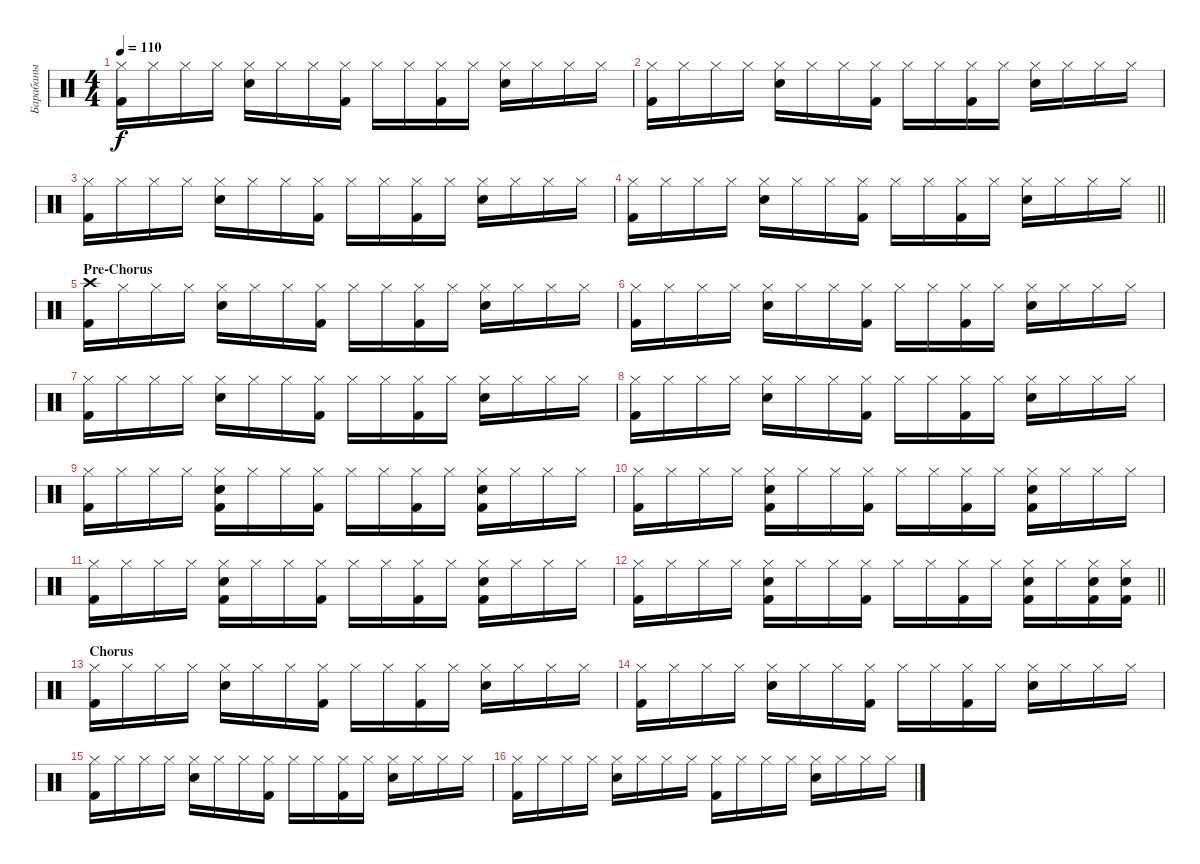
\track ("Барабаны" "Барабаны") {instrument percussion}
\staff {score}
\articulation defaults
\ts (4 4)
\tempo 110
\clef neutral
\ks c
("Hi-Hat (closed)" "Kick (hit) 2").16{dy f} "Hi-Hat (closed)".16 "Hi-Hat (closed)".16 "Hi-Hat (closed)".16 ("Hi-Hat (closed)" "Snare (hit) 2").16 "Hi-Hat (closed)".16 "Hi-Hat (closed)".16 ("Hi-Hat (closed)" "Kick (hit) 2").16 "Hi-Hat (closed)".16 "Hi-Hat (closed)".16 ("Hi-Hat (closed)" "Kick (hit) 2").16 "Hi-Hat (closed)".16 ("Hi-Hat (closed)" "Snare (hit) 2").16 "Hi-Hat (closed)".16 "Hi-Hat (closed)".16 "Hi-Hat (closed)".16 |
("Hi-Hat (closed)" "Kick (hit) 2").16 "Hi-Hat (closed)".16 "Hi-Hat (closed)".16 "Hi-Hat (closed)".16 ("Hi-Hat (closed)" "Snare (hit) 2").16 "Hi-Hat (closed)".16 "Hi-Hat (closed)".16 ("Hi-Hat (closed)" "Kick (hit) 2").16 "Hi-Hat (closed)".16 "Hi-Hat (closed)".16 ("Hi-Hat (closed)" "Kick (hit) 2").16 "Hi-Hat (closed)".16 ("Hi-Hat (closed)" "Snare (hit) 2").16 "Hi-Hat (closed)".16 "Hi-Hat (closed)".16 "Hi-Hat (closed)".16 |
("Hi-Hat (closed)" "Kick (hit) 2").16 "Hi-Hat (closed)".16 "Hi-Hat (closed)".16 "Hi-Hat (closed)".16 ("Hi-Hat (closed)" "Snare (hit) 2").16 "Hi-Hat (closed)".16 "Hi-Hat (closed)".16 ("Hi-Hat (closed)" "Kick (hit) 2").16 "Hi-Hat (closed)".16 "Hi-Hat (closed)".16 ("Hi-Hat (closed)" "Kick (hit) 2").16 "Hi-Hat (closed)".16 ("Hi-Hat (closed)" "Snare (hit) 2").16 "Hi-Hat (closed)".16 "Hi-Hat (closed)".16 "Hi-Hat (closed)".16 |
\barLineRight lightlight
("Hi-Hat (closed)" "Kick (hit) 2").16 "Hi-Hat (closed)".16 "Hi-Hat (closed)".16 "Hi-Hat (closed)".16 ("Hi-Hat (closed)" "Snare (hit) 2").16 "Hi-Hat (closed)".16 "Hi-Hat (closed)".16 ("Hi-Hat (closed)" "Kick (hit) 2").16 "Hi-Hat (closed)".16 "Hi-Hat (closed)".16 ("Hi-Hat (closed)" "Kick (hit) 2").16 "Hi-Hat (closed)".16 ("Hi-Hat (closed)" "Snare (hit) 2").16 "Hi-Hat (closed)".16 "Hi-Hat (closed)".16 "Hi-Hat (closed)".16 |
\section ("" "Pre-Chorus")
("Crash high (hit)" "Kick (hit) 2").16 "Hi-Hat (closed)".16 "Hi-Hat (closed)".16 "Hi-Hat (closed)".16 ("Hi-Hat (closed)" "Snare (hit) 2").16 "Hi-Hat (closed)".16 "Hi-Hat (closed)".16 ("Hi-Hat (closed)" "Kick (hit) 2").16 "Hi-Hat (closed)".16 "Hi-Hat (closed)".16 ("Hi-Hat (closed)" "Kick (hit) 2").16 "Hi-Hat (closed)".16 ("Hi-Hat (closed)" "Snare (hit) 2").16 "Hi-Hat (closed)".16 "Hi-Hat (closed)".16 "Hi-Hat (closed)".16 |
("Hi-Hat (closed)" "Kick (hit) 2").16 "Hi-Hat (closed)".16 "Hi-Hat (closed)".16 "Hi-Hat (closed)".16 ("Hi-Hat (closed)" "Snare (hit) 2").16 "Hi-Hat (closed)".16 "Hi-Hat (closed)".16 ("Hi-Hat (closed)" "Kick (hit) 2").16 "Hi-Hat (closed)".16 "Hi-Hat (closed)".16 ("Hi-Hat (closed)" "Kick (hit) 2").16 "Hi-Hat (closed)".16 ("Hi-Hat (closed)" "Snare (hit) 2").16 "Hi-Hat (closed)".16 "Hi-Hat (closed)".16 "Hi-Hat (closed)".16 |
("Hi-Hat (closed)" "Kick (hit) 2").16 "Hi-Hat (closed)".16 "Hi-Hat (closed)".16 "Hi-Hat (closed)".16 ("Hi-Hat (closed)" "Snare (hit) 2").16 "Hi-Hat (closed)".16 "Hi-Hat (closed)".16 ("Hi-Hat (closed)" "Kick (hit) 2").16 "Hi-Hat (closed)".16 "Hi-Hat (closed)".16 ("Hi-Hat (closed)" "Kick (hit) 2").16 "Hi-Hat (closed)".16 ("Hi-Hat (closed)" "Snare (hit) 2").16 "Hi-Hat (closed)".16 "Hi-Hat (closed)".16 "Hi-Hat (closed)".16 |
("Hi-Hat (closed)" "Kick (hit) 2").16 "Hi-Hat (closed)".16 "Hi-Hat (closed)".16 "Hi-Hat (closed)".16 ("Hi-Hat (closed)" "Snare (hit) 2").16 "Hi-Hat (closed)".16 "Hi-Hat (closed)".16 ("Hi-Hat (closed)" "Kick (hit) 2").16 "Hi-Hat (closed)".16 "Hi-Hat (closed)".16 ("Hi-Hat (closed)" "Kick (hit) 2").16 "Hi-Hat (closed)".16 ("Hi-Hat (closed)" "Snare (hit) 2").16 "Hi-Hat (closed)".16 "Hi-Hat (closed)".16 "Hi-Hat (closed)".16 |
("Hi-Hat (closed)" "Kick (hit) 2").16 "Hi-Hat (closed)".16 "Hi-Hat (closed)".16 "Hi-Hat (closed)".16 ("Hi-Hat (closed)" "Snare (hit) 2" "Kick (hit) 2").16 "Hi-Hat (closed)".16 "Hi-Hat (closed)".16 ("Hi-Hat (closed)" "Kick (hit) 2").16 "Hi-Hat (closed)".16 "Hi-Hat (closed)".16 ("Hi-Hat (closed)" "Kick (hit) 2").16 "Hi-Hat (closed)".16 ("Hi-Hat (closed)" "Snare (hit) 2" "Kick (hit) 2").16 "Hi-Hat (closed)".16 "Hi-Hat (closed)".16 "Hi-Hat (closed)".16 |
("Hi-Hat (closed)" "Kick (hit) 2").16 "Hi-Hat (closed)".16 "Hi-Hat (closed)".16 "Hi-Hat (closed)".16 ("Hi-Hat (closed)" "Snare (hit) 2" "Kick (hit) 2").16 "Hi-Hat (closed)".16 "Hi-Hat (closed)".16 ("Hi-Hat (closed)" "Kick (hit) 2").16 "Hi-Hat (closed)".16 "Hi-Hat (closed)".16 ("Hi-Hat (closed)" "Kick (hit) 2").16 "Hi-Hat (closed)".16 ("Hi-Hat (closed)" "Snare (hit) 2" "Kick (hit) 2").16 "Hi-Hat (closed)".16 "Hi-Hat (closed)".16 "Hi-Hat (closed)".16 |
("Hi-Hat (closed)" "Kick (hit) 2").16 "Hi-Hat (closed)".16 "Hi-Hat (closed)".16 "Hi-Hat (closed)".16 ("Hi-Hat (closed)" "Snare (hit) 2" "Kick (hit) 2").16 "Hi-Hat (closed)".16 "Hi-Hat (closed)".16 ("Hi-Hat (closed)" "Kick (hit) 2").16 "Hi-Hat (closed)".16 "Hi-Hat (closed)".16 ("Hi-Hat (closed)" "Kick (hit) 2").16 "Hi-Hat (closed)".16 ("Hi-Hat (closed)" "Snare (hit) 2" "Kick (hit) 2").16 "Hi-Hat (closed)".16 "Hi-Hat (closed)".16 "Hi-Hat (closed)".16 |
\barLineRight lightlight
("Hi-Hat (closed)" "Kick (hit) 2").16 "Hi-Hat (closed)".16 "Hi-Hat (closed)".16 "Hi-Hat (closed)".16 ("Hi-Hat (closed)" "Snare (hit) 2" "Kick (hit) 2").16 "Hi-Hat (closed)".16 "Hi-Hat (closed)".16 ("Hi-Hat (closed)" "Kick (hit) 2").16 "Hi-Hat (closed)".16 "Hi-Hat (closed)".16 ("Hi-Hat (closed)" "Kick (hit) 2").16 "Hi-Hat (closed)".16 ("Hi-Hat (closed)" "Snare (hit) 2" "Kick (hit) 2").16 "Hi-Hat (closed)".16 ("Hi-Hat (closed)" "Snare (hit) 2" "Kick (hit) 2").16 ("Hi-Hat (closed)" "Snare (hit) 2" "Kick (hit) 2").16 |
\section ("" "Chorus")
("Hi-Hat (closed)" "Kick (hit) 2").16 "Hi-Hat (closed)".16 "Hi-Hat (closed)".16 "Hi-Hat (closed)".16 ("Hi-Hat (closed)" "Snare (hit) 2").16 "Hi-Hat (closed)".16 "Hi-Hat (closed)".16 ("Hi-Hat (closed)" "Kick (hit) 2").16 "Hi-Hat (closed)".16 "Hi-Hat (closed)".16 ("Hi-Hat (closed)" "Kick (hit) 2").16 "Hi-Hat (closed)".16 ("Hi-Hat (closed)" "Snare (hit) 2").16 "Hi-Hat (closed)".16 "Hi-Hat (closed)".16 "Hi-Hat (closed)".16 |
("Hi-Hat (closed)" "Kick (hit) 2").16 "Hi-Hat (closed)".16 "Hi-Hat (closed)".16 "Hi-Hat (closed)".16 ("Hi-Hat (closed)" "Snare (hit) 2").16 "Hi-Hat (closed)".16 "Hi-Hat (closed)".16 ("Hi-Hat (closed)" "Kick (hit) 2").16 "Hi-Hat (closed)".16 "Hi-Hat (closed)".16 ("Hi-Hat (closed)" "Kick (hit) 2").16 "Hi-Hat (closed)".16 ("Hi-Hat (closed)" "Snare (hit) 2").16 "Hi-Hat (closed)".16 "Hi-Hat (closed)".16 "Hi-Hat (closed)".16 |
("Hi-Hat (closed)" "Kick (hit) 2").16 "Hi-Hat (closed)".16 "Hi-Hat (closed)".16 "Hi-Hat (closed)".16 ("Hi-Hat (closed)" "Snare (hit) 2").16 "Hi-Hat (closed)".16 "Hi-Hat (closed)".16 ("Hi-Hat (closed)" "Kick (hit) 2").16 "Hi-Hat (closed)".16 "Hi-Hat (closed)".16 ("Hi-Hat (closed)" "Kick (hit) 2").16 "Hi-Hat (closed)".16 ("Hi-Hat (closed)" "Snare (hit) 2").16 "Hi-Hat (closed)".16 "Hi-Hat (closed)".16 "Hi-Hat (closed)".16 |
("Hi-Hat (closed)" "Kick (hit) 2").16 "Hi-Hat (closed)".16 "Hi-Hat (closed)".16 "Hi-Hat (closed)".16 ("Hi-Hat (closed)" "Snare (hit) 2").16 "Hi-Hat (closed)".16 "Hi-Hat (closed)".16 "Hi-Hat (closed)".16 ("Hi-Hat (closed)" "Kick (hit) 2").16 "Hi-Hat (closed)".16 "Hi-Hat (closed)".16 "Hi-Hat (closed)".16 ("Hi-Hat (closed)" "Snare (hit) 2").16 "Hi-Hat (closed)".16 "Hi-Hat (closed)".16 "Hi-Hat (closed)".16
